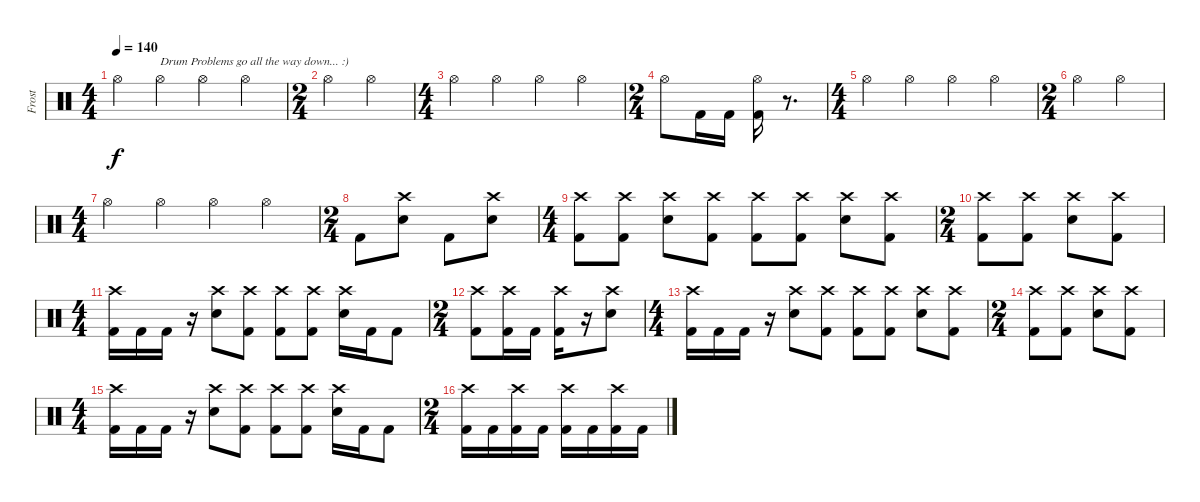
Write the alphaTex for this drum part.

\track ("Frost" "Frost") {instrument percussion}
\staff {score}
\articulation defaults
\ts (4 4)
\tempo 140
\clef neutral
\ks c "Hi-Hat (open)".4{dy f} "Hi-Hat (open)".4{txt "Drum Problems go all the way down... :)"} "Hi-Hat (open)".4 "Hi-Hat (open)".4
|
\ts (2 4)
"Hi-Hat (open)".4 "Hi-Hat (open)".4 |
\ts (4 4)
"Hi-Hat (open)".4 "Hi-Hat (open)".4 "Hi-Hat (open)".4 "Hi-Hat (open)".4 |
\ts (2 4)
"Hi-Hat (open)".8 "Kick (hit) 2".16 "Kick (hit) 2".16 ("Hi-Hat (open)" "Kick (hit) 2").16 r.8{d} |
\ts (4 4)
"Hi-Hat (open)".4 "Hi-Hat (open)".4 "Hi-Hat (open)".4 "Hi-Hat (open)".4 |
\ts (2 4)
"Hi-Hat (open)".4 "Hi-Hat (open)".4 |
\ts (4 4)
"Hi-Hat (open)".4 "Hi-Hat (open)".4 "Hi-Hat (open)".4 "Hi-Hat (open)".4 |
\ts (2 4)
"Kick (hit) 2".8 ("Crash high (hit)" "Snare (hit) 2").8 "Kick (hit) 2".8 ("Crash high (hit)" "Snare (hit) 2").8 |
\ts (4 4)
("Crash high (hit)" "Kick (hit) 2").8 ("Crash high (hit)" "Kick (hit) 2").8 ("Crash high (hit)" "Snare (hit) 2").8 ("Crash high (hit)" "Kick (hit) 2").8 ("Crash high (hit)" "Kick (hit) 2").8 ("Crash high (hit)" "Kick (hit) 2").8 ("Crash high (hit)" "Snare (hit) 2").8 ("Crash high (hit)" "Kick (hit) 2").8 |
\ts (2 4)
("Crash high (hit)" "Kick (hit) 2").8 ("Crash high (hit)" "Kick (hit) 2").8 ("Crash high (hit)" "Snare (hit) 2").8 ("Crash high (hit)" "Kick (hit) 2").8 |
\ts (4 4)
("Crash high (hit)" "Kick (hit) 2").16 "Kick (hit) 2".16 "Kick (hit) 2".16 r.16 ("Crash high (hit)" "Snare (hit) 2").8 ("Crash high (hit)" "Kick (hit) 2").8 ("Crash high (hit)" "Kick (hit) 2").8 ("Crash high (hit)" "Kick (hit) 2").8 ("Crash high (hit)" "Snare (hit) 2").16 "Kick (hit) 2".16 "Kick (hit) 2".8 |
\ts (2 4)
("Crash high (hit)" "Kick (hit) 2").8 ("Crash high (hit)" "Kick (hit) 2").16 "Kick (hit) 2".16 ("Crash high (hit)" "Kick (hit) 2").16 r.16 ("Crash high (hit)" "Snare (hit) 2").8 |
\ts (4 4)
("Crash high (hit)" "Kick (hit) 2").16 "Kick (hit) 2".16 "Kick (hit) 2".16 r.16 ("Crash high (hit)" "Snare (hit) 2").8 ("Crash high (hit)" "Kick (hit) 2").8 ("Crash high (hit)" "Kick (hit) 2").8 ("Crash high (hit)" "Kick (hit) 2").8 ("Crash high (hit)" "Snare (hit) 2").8 ("Crash high (hit)" "Kick (hit) 2").8 |
\ts (2 4)
("Crash high (hit)" "Kick (hit) 2").8 ("Crash high (hit)" "Kick (hit) 2").8 ("Crash high (hit)" "Snare (hit) 2").8 ("Crash high (hit)" "Kick (hit) 2").8 |
\ts (4 4)
("Crash high (hit)" "Kick (hit) 2").16 "Kick (hit) 2".16 "Kick (hit) 2".16 r.16 ("Crash high (hit)" "Snare (hit) 2").8 ("Crash high (hit)" "Kick (hit) 2").8 ("Crash high (hit)" "Kick (hit) 2").8 ("Crash high (hit)" "Kick (hit) 2").8 ("Crash high (hit)" "Snare (hit) 2").16 "Kick (hit) 2".16 "Kick (hit) 2".8 |
\ts (2 4)
("Crash high (hit)" "Kick (hit) 2").16 "Kick (hit) 2".16 ("Crash high (hit)" "Kick (hit) 2").16 "Kick (hit) 2".16 ("Crash high (hit)" "Kick (hit) 2").16 "Kick (hit) 2".16 ("Crash high (hit)" "Kick (hit) 2").16 "Kick (hit) 2".16
